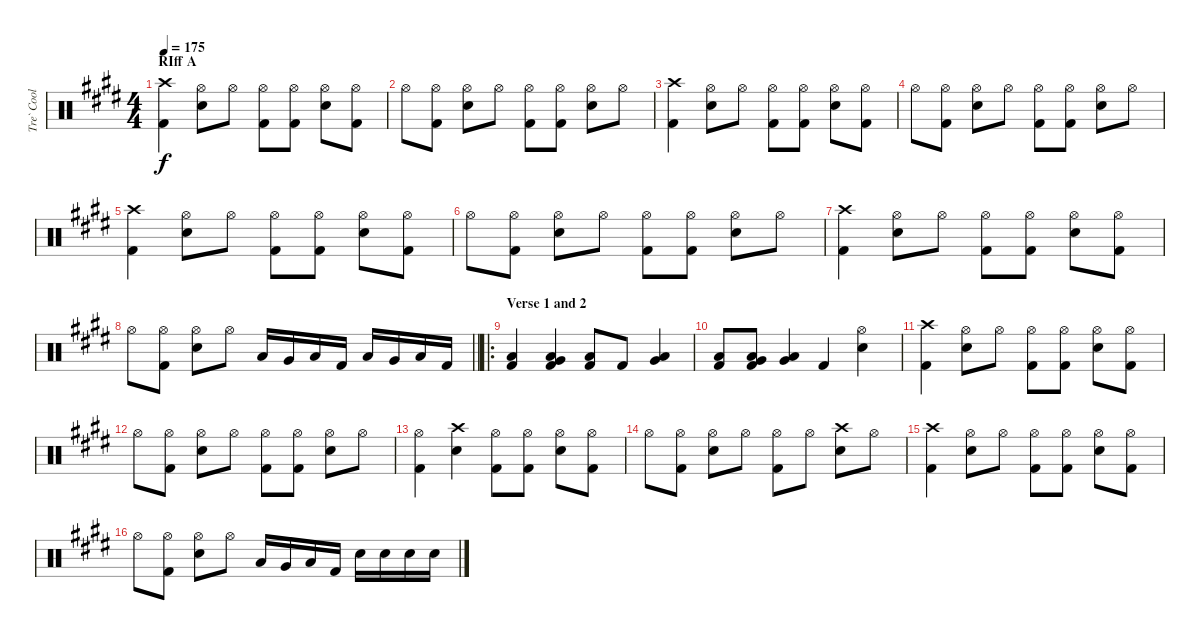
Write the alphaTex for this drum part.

\track ("Tre` Cool" "Tre` Cool") {instrument percussion}
\staff {score}
\articulation defaults
\ts (4 4)
\section ("" "RIff A")
\tempo 175
\clef neutral
\ks e
("Crash high (hit)" "Kick (hit) 2").4{dy f} ("Hi-Hat (open)" "Snare (hit) 2").8 "Hi-Hat (open)".8 ("Hi-Hat (open)" "Kick (hit) 2").8 ("Hi-Hat (open)" "Kick (hit) 2").8 ("Hi-Hat (open)" "Snare (hit) 2").8 ("Hi-Hat (open)" "Kick (hit) 2").8 |
"Hi-Hat (open)".8 ("Hi-Hat (open)" "Kick (hit) 2").8 ("Hi-Hat (open)" "Snare (hit) 2").8 "Hi-Hat (open)".8 ("Hi-Hat (open)" "Kick (hit) 2").8 ("Hi-Hat (open)" "Kick (hit) 2").8 ("Hi-Hat (open)" "Snare (hit) 2").8 "Hi-Hat (open)".8 |
("Crash high (hit)" "Kick (hit) 2").4 ("Hi-Hat (open)" "Snare (hit) 2").8 "Hi-Hat (open)".8 ("Hi-Hat (open)" "Kick (hit) 2").8 ("Hi-Hat (open)" "Kick (hit) 2").8 ("Hi-Hat (open)" "Snare (hit) 2").8 ("Hi-Hat (open)" "Kick (hit) 2").8 |
"Hi-Hat (open)".8 ("Hi-Hat (open)" "Kick (hit) 2").8 ("Hi-Hat (open)" "Snare (hit) 2").8 "Hi-Hat (open)".8 ("Hi-Hat (open)" "Kick (hit) 2").8 ("Hi-Hat (open)" "Kick (hit) 2").8 ("Hi-Hat (open)" "Snare (hit) 2").8 "Hi-Hat (open)".8 |
("Crash high (hit)" "Kick (hit) 2").4 ("Hi-Hat (open)" "Snare (hit) 2").8 "Hi-Hat (open)".8 ("Hi-Hat (open)" "Kick (hit) 2").8 ("Hi-Hat (open)" "Kick (hit) 2").8 ("Hi-Hat (open)" "Snare (hit) 2").8 ("Hi-Hat (open)" "Kick (hit) 2").8 |
"Hi-Hat (open)".8 ("Hi-Hat (open)" "Kick (hit) 2").8 ("Hi-Hat (open)" "Snare (hit) 2").8 "Hi-Hat (open)".8 ("Hi-Hat (open)" "Kick (hit) 2").8 ("Hi-Hat (open)" "Kick (hit) 2").8 ("Hi-Hat (open)" "Snare (hit) 2").8 "Hi-Hat (open)".8 |
("Crash high (hit)" "Kick (hit) 2").4 ("Hi-Hat (open)" "Snare (hit) 2").8 "Hi-Hat (open)".8 ("Hi-Hat (open)" "Kick (hit) 2").8 ("Hi-Hat (open)" "Kick (hit) 2").8 ("Hi-Hat (open)" "Snare (hit) 2").8 ("Hi-Hat (open)" "Kick (hit) 2").8 |
\barLineRight lightlight "Hi-Hat (open)".8
("Hi-Hat (open)" "Kick (hit) 2").8 ("Hi-Hat (open)" "Snare (hit) 2").8 "Hi-Hat (open)".8 "Low Tom (hit)".16 "Very Low Tom (hit)".16 "Low Floor Tom (hit)".16 "Kick (hit) 2".16 "Low Tom (hit)".16 "Very Low Tom (hit)".16 "Low Floor Tom (hit)".16 "Kick (hit) 2".16 |
\ro
\section ("" "Verse 1 and 2")
("Low Floor Tom (hit)" "Kick (hit) 2").4 ("Very Low Tom (hit)" "Low Floor Tom (hit)" "Kick (hit) 2").4 ("Low Floor Tom (hit)" "Kick (hit) 2").8 "Kick (hit) 2".8 ("Very Low Tom (hit)" "Low Floor Tom (hit)").4 |
("Low Floor Tom (hit)" "Kick (hit) 2").8 ("Very Low Tom (hit)" "Low Floor Tom (hit)" "Kick (hit) 2").8 ("Very Low Tom (hit)" "Low Floor Tom (hit)").4 "Kick (hit) 2".4 ("Hi-Hat (open)" "Snare (hit) 2").4 |
("Crash high (hit)" "Kick (hit) 2").4 ("Hi-Hat (open)" "Snare (hit) 2").8 "Hi-Hat (open)".8 ("Hi-Hat (open)" "Kick (hit) 2").8 ("Hi-Hat (open)" "Kick (hit) 2").8 ("Hi-Hat (open)" "Snare (hit) 2").8 ("Hi-Hat (open)" "Kick (hit) 2").8 |
"Hi-Hat (open)".8 ("Hi-Hat (open)" "Kick (hit) 2").8 ("Hi-Hat (open)" "Snare (hit) 2").8 "Hi-Hat (open)".8 ("Hi-Hat (open)" "Kick (hit) 2").8 ("Hi-Hat (open)" "Kick (hit) 2").8 ("Hi-Hat (open)" "Snare (hit) 2").8 "Hi-Hat (open)".8 |
("Hi-Hat (open)" "Kick (hit) 2").4 ("Crash high (hit)" "Snare (hit) 2").4 ("Hi-Hat (open)" "Kick (hit) 2").8 ("Hi-Hat (open)" "Kick (hit) 2").8 ("Hi-Hat (open)" "Snare (hit) 2").8 ("Hi-Hat (open)" "Kick (hit) 2").8 |
"Hi-Hat (open)".8 ("Hi-Hat (open)" "Kick (hit) 2").8 ("Hi-Hat (open)" "Snare (hit) 2").8 "Hi-Hat (open)".8 ("Hi-Hat (open)" "Kick (hit) 2").8 "Hi-Hat (open)".8 ("Crash high (hit)" "Snare (hit) 2").8 "Hi-Hat (open)".8 |
("Crash high (hit)" "Kick (hit) 2").4 ("Hi-Hat (open)" "Snare (hit) 2").8 "Hi-Hat (open)".8 ("Hi-Hat (open)" "Kick (hit) 2").8 ("Hi-Hat (open)" "Kick (hit) 2").8 ("Hi-Hat (open)" "Snare (hit) 2").8 ("Hi-Hat (open)" "Kick (hit) 2").8 |
"Hi-Hat (open)".8 ("Hi-Hat (open)" "Kick (hit) 2").8 ("Hi-Hat (open)" "Snare (hit) 2").8 "Hi-Hat (open)".8 "Low Tom (hit)".16 "Very Low Tom (hit)".16 "Low Floor Tom (hit)".16 "Kick (hit) 2".16 "Snare (hit) 2".16 "Snare (hit) 2".16 "Snare (hit) 2".16 "Snare (hit) 2".16
